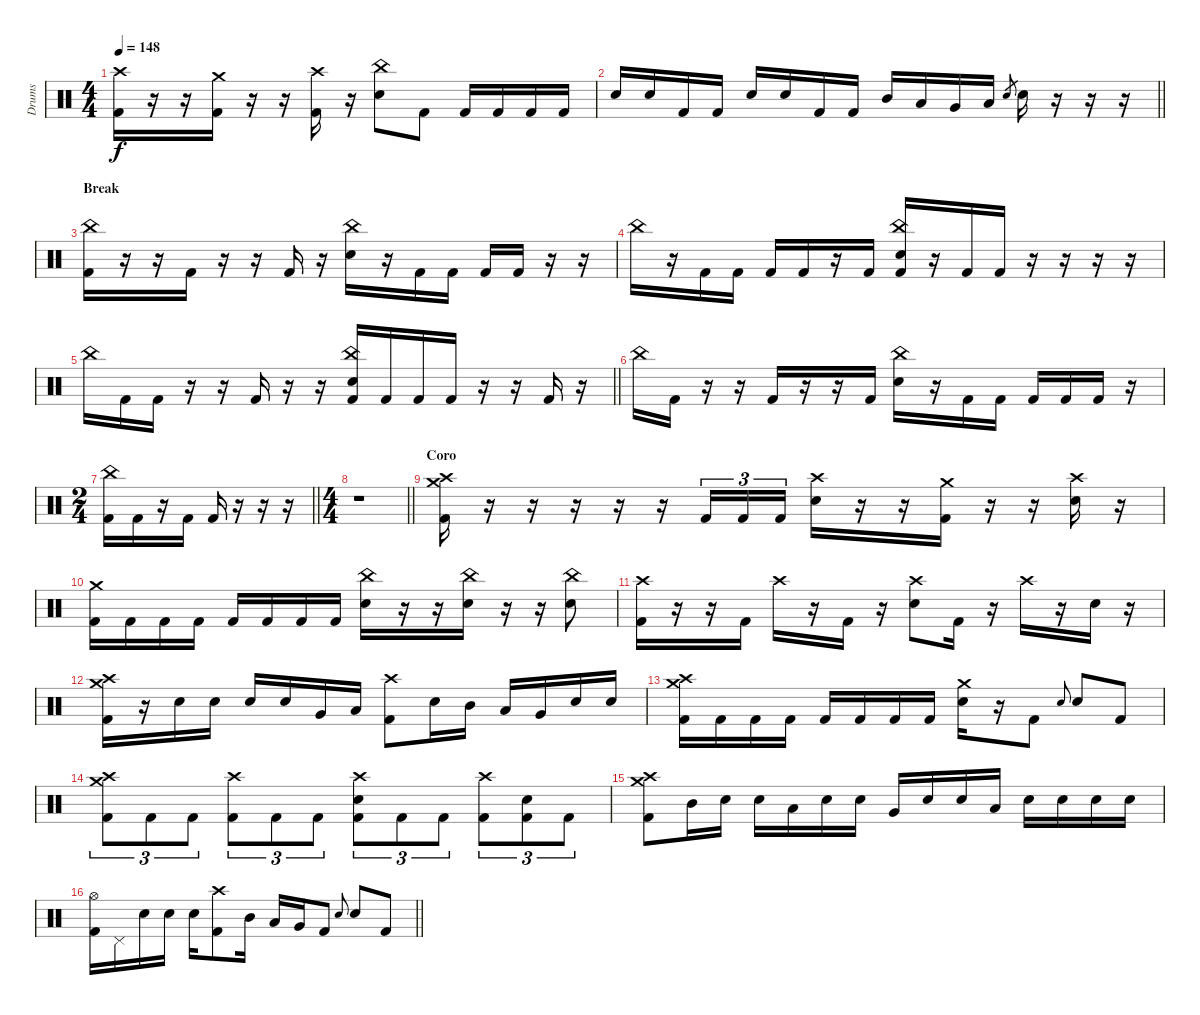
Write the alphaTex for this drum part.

\track ("Drums" "Drums") {instrument percussion}
\staff {score}
\articulation defaults
\ts (4 4)
\tempo 148
\clef neutral
\ks c
("Crash high (hit)" "Kick (hit) 2").16{dy f} r.16 r.16 ("Crash medium (hit)" "Kick (hit) 2").16 r.16 r.16 ("Crash high (hit)" "Kick (hit) 2").16 r.16 ("China (hit)" "Electric Snare (hit)").8 "Kick (hit) 2".8 "Kick (hit) 2".16 "Kick (hit) 2".16 "Kick (hit) 2".16 "Kick (hit) 2".16 |
\barLineRight lightlight "Electric Snare (hit)".16 "Electric Snare (hit)".16 "Kick (hit) 2".16 "Kick (hit) 2".16 "Electric Snare (hit)".16 "Electric Snare (hit)".16 "Kick (hit) 2".16 "Kick (hit) 2".16 "Mid Tom (hit)".16 "Low Tom (hit)".16 "Very Low Tom (hit)".16 "Low Floor Tom (hit)".16 "Electric Snare (hit)".8{gr} "Electric Snare (hit)".16
r.16 r.16 r.16 |
\section ("" "Break")
("China (hit)" "Kick (hit) 2").16 r.16 r.16 "Kick (hit) 2".16 r.16 r.16 "Kick (hit) 2".16 r.16 ("China (hit)" "Electric Snare (hit)").16 r.16 "Kick (hit) 2".16 "Kick (hit) 2".16 "Kick (hit) 2".16 "Kick (hit) 2".16 r.16 r.16 |
"China (hit)".16 r.16 "Kick (hit) 2".16 "Kick (hit) 2".16 "Kick (hit) 2".16 "Kick (hit) 2".16 r.16 "Kick (hit) 2".16 ("China (hit)" "Electric Snare (hit)" "Kick (hit) 2").16 r.16 "Kick (hit) 2".16 "Kick (hit) 2".16 r.16 r.16 r.16 r.16 |
\barLineRight lightlight "China (hit)".16 "Kick (hit) 2".16 "Kick (hit) 2".16
r.16 r.16 "Kick (hit) 2".16 r.16 r.16 ("China (hit)" "Electric Snare (hit)" "Kick (hit) 2").16 "Kick (hit) 2".16 "Kick (hit) 2".16 "Kick (hit) 2".16 r.16 r.16 "Kick (hit) 2".16 r.16 |
"China (hit)".16 "Kick (hit) 2".16 r.16 r.16 "Kick (hit) 2".16 r.16 r.16 "Kick (hit) 2".16 ("China (hit)" "Electric Snare (hit)").16 r.16 "Kick (hit) 2".16 "Kick (hit) 2".16 "Kick (hit) 2".16 "Kick (hit) 2".16 "Kick (hit) 2".16 r.16 |
\ts (2 4)
\barLineRight lightlight
("China (hit)" "Kick (hit) 2").16 "Kick (hit) 2".16 r.16 "Kick (hit) 2".16 "Kick (hit) 2".16 r.16 r.16 r.16 |
\ts (4 4)
\barLineRight lightlight
r.1 |
\section ("" "Coro")
("Crash medium (hit)" "Crash high (hit)" "Kick (hit) 2").16 r.16 r.16 r.16 r.16 r.16 "Kick (hit) 2".16{tu (3 2)} "Kick (hit) 2".16{tu (3 2)} "Kick (hit) 2".16{tu (3 2)} ("Crash high (hit)" "Electric Snare (hit)").16 r.16 r.16 ("Crash medium (hit)" "Kick (hit) 2").16 r.16 r.16 ("Crash high (hit)" "Electric Snare (hit)").16 r.16 |
("Crash medium (hit)" "Kick (hit) 2").16 "Kick (hit) 2".16 "Kick (hit) 2".16 "Kick (hit) 2".16 "Kick (hit) 2".16 "Kick (hit) 2".16 "Kick (hit) 2".16 "Kick (hit) 2".16 ("China (hit)" "Electric Snare (hit)").16 r.16 r.16 ("China (hit)" "Electric Snare (hit)").16 r.16 r.16 ("China (hit)" "Electric Snare (hit)").8 |
("Crash high (hit)" "Kick (hit) 2").16 r.16 r.16 "Kick (hit) 2".16 "Crash high (hit)".16 r.16 "Kick (hit) 2".16 r.16 ("Crash high (hit)" "Electric Snare (hit)").8 "Kick (hit) 2".16 r.16 "Crash high (hit)".16 r.16 "Electric Snare (hit)".16 r.16 |
("Crash medium (hit)" "Crash high (hit)" "Kick (hit) 2").16 r.16 "Electric Snare (hit)".16 "Electric Snare (hit)".16 "Electric Snare (hit)".16 "Electric Snare (hit)".16 "Very Low Tom (hit)".16 "Low Floor Tom (hit)".16 ("Crash high (hit)" "Kick (hit) 2").8 "Electric Snare (hit)".16 "Mid Tom (hit)".16 "Low Tom (hit)".16 "Very Low Tom (hit)".16 "Electric Snare (hit)".16 "Electric Snare (hit)".16 |
("Crash medium (hit)" "Crash high (hit)" "Kick (hit) 2").16 "Kick (hit) 2".16 "Kick (hit) 2".16 "Kick (hit) 2".16 "Kick (hit) 2".16 "Kick (hit) 2".16 "Kick (hit) 2".16 "Kick (hit) 2".16 ("Crash medium (hit)" "Electric Snare (hit)").16 r.16 "Kick (hit) 2".8 "Electric Snare (hit)".8{gr onbeat} "Electric Snare (hit)".8 "Kick (hit) 2".8 |
("Crash high (hit)" "Crash medium (hit)" "Kick (hit) 2").8{tu (3 2)} "Kick (hit) 2".8{tu (3 2)} "Kick (hit) 2".8{tu (3 2)} ("Crash high (hit)" "Kick (hit) 2").8{tu (3 2)} "Kick (hit) 2".8{tu (3 2)} "Kick (hit) 2".8{tu (3 2)} ("Crash high (hit)" "Electric Snare (hit)" "Kick (hit) 2").8{tu (3 2)} "Kick (hit) 2".8{tu (3 2)} "Kick (hit) 2".8{tu (3 2)} ("Crash high (hit)" "Kick (hit) 2").8{tu (3 2)} ("Electric Snare (hit)" "Kick (hit) 2").8{tu (3 2)} "Kick (hit) 2".8{tu (3 2)} |
("Crash high (hit)" "Crash medium (hit)" "Kick (hit) 2").8 "Mid Tom (hit)".16 "Electric Snare (hit)".16 "Electric Snare (hit)".16 "Low Tom (hit)".16 "Electric Snare (hit)".16 "Electric Snare (hit)".16 "Very Low Tom (hit)".16 "Electric Snare (hit)".16 "Electric Snare (hit)".16 "Low Floor Tom (hit)".16 "Electric Snare (hit)".16 "Electric Snare (hit)".16 "Electric Snare (hit)".16 "Electric Snare (hit)".16 |
\barLineRight lightlight
("Hi-Hat (open)" "Kick (hit) 2").16 "Pedal Hi-Hat (hit)".16 "Electric Snare (hit)".16 "Electric Snare (hit)".16 "Electric Snare (hit)".16 ("Crash high (hit)" "Kick (hit) 2").8 "Mid Tom (hit)".16 "Low Tom (hit)".16 "Very Low Tom (hit)".16 "Kick (hit) 2".8 "Electric Snare (hit)".8{gr onbeat} "Electric Snare (hit)".8 "Kick (hit) 2".8
